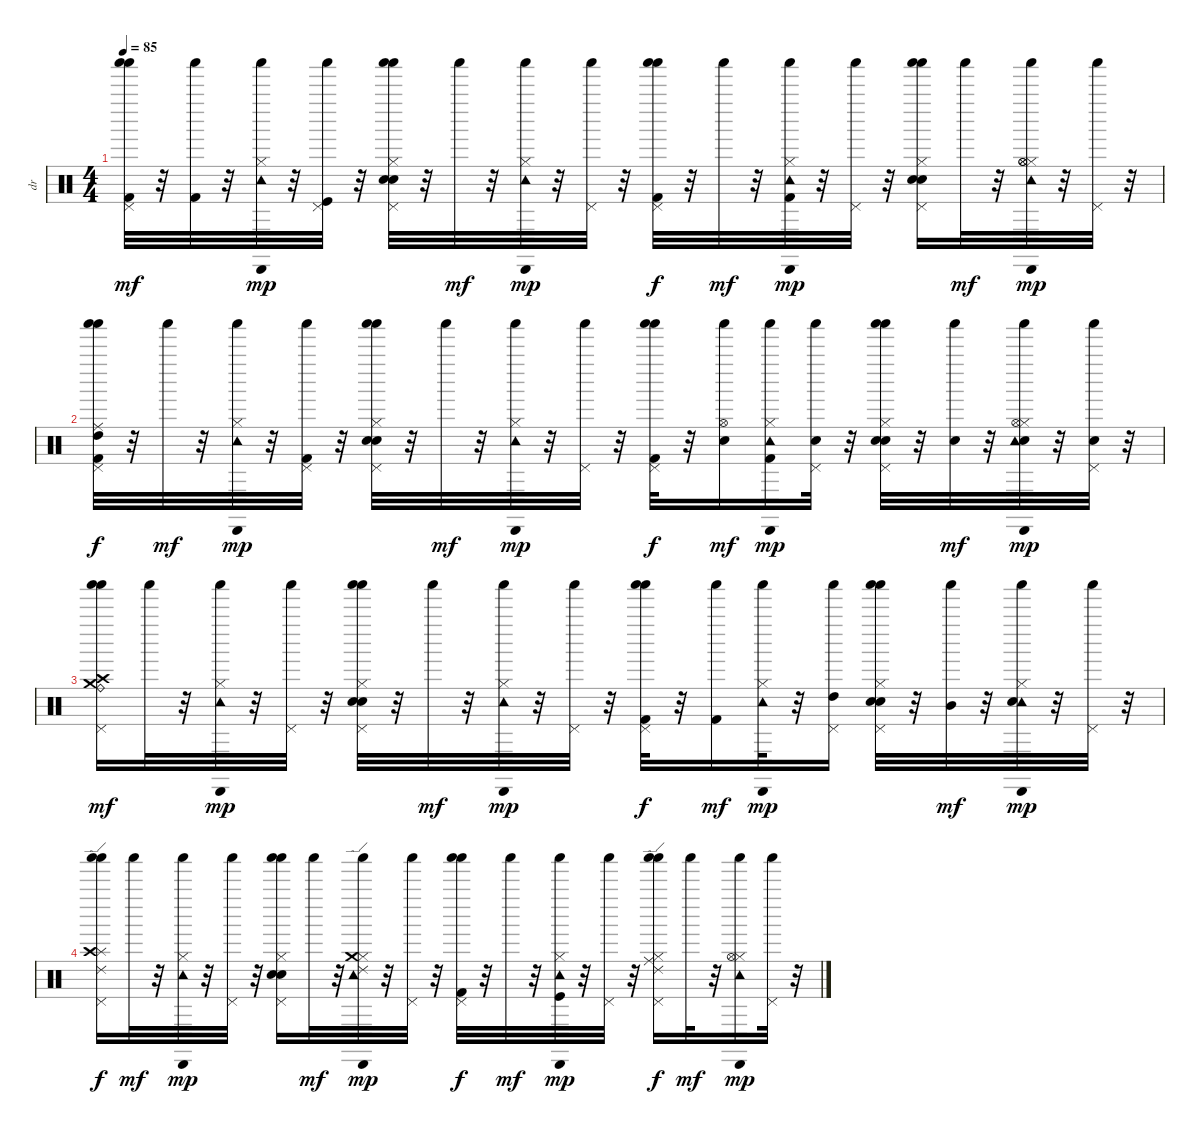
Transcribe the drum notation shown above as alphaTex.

\track ("dr" "dr") {instrument percussion}
\staff {score}
\articulation defaults
\ts (4 4)
\tempo 85
\clef neutral
\ks c
("Pedal Hi-Hat (hit)" "Shaker (hit)" "Shaker (hit)" "Kick (hit) 2").32{dy mf} r.32 ("Shaker (hit)" "Kick (hit) 2").32 r.32 ("Cabasa (hit)" "Tambourine (hit)" "Shaker (hit)" "Hi-Hat (closed)").32{dy mp} r.32 ("Pedal Hi-Hat (hit)" "Shaker (hit)" "Kick (hit)").32 r.32 ("Pedal Hi-Hat (hit)" "Shaker (hit)" "Shaker (hit)" "Hi-Hat (closed)" "Electric Snare (hit)" "Snare (hit) 2").32 r.32 "Shaker (hit)".32{dy mf} r.32 ("Hi-Hat (closed)" "Cabasa (hit)" "Tambourine (hit)" "Shaker (hit)").32{dy mp} r.32 ("Pedal Hi-Hat (hit)" "Shaker (hit)").32 r.32 ("Pedal Hi-Hat (hit)" "Shaker (hit)" "Shaker (hit)" "Kick (hit) 2").32{dy f} r.32 "Shaker (hit)".32{dy mf} r.32 ("Hi-Hat (closed)" "Cabasa (hit)" "Tambourine (hit)" "Shaker (hit)" "Kick (hit) 2").32{dy mp} r.32 ("Pedal Hi-Hat (hit)" "Shaker (hit)").32 r.32 ("Electric Snare (hit)" "Pedal Hi-Hat (hit)" "Shaker (hit)" "Shaker (hit)" "Hi-Hat (closed)" "Snare (hit) 2").16 "Shaker (hit)".32{dy mf} r.32 ("Hi-Hat (closed)" "Cabasa (hit)" "Tambourine (hit)" "Shaker (hit)" "Hi-Hat (open)" "Hi-Hat (open)").32{dy mp} r.32 ("Pedal Hi-Hat (hit)" "Shaker (hit)").32 r.32 |
("Pedal Hi-Hat (hit)" "Shaker (hit)" "Shaker (hit)" "Kick (hit) 2" "Ride (middle)" "High Tom (hit)").32{dy f} r.32 "Shaker (hit)".32{dy mf} r.32 ("Hi-Hat (closed)" "Cabasa (hit)" "Tambourine (hit)" "Shaker (hit)").32{dy mp} r.32 ("Pedal Hi-Hat (hit)" "Shaker (hit)" "Kick (hit) 2").32 r.32 ("Electric Snare (hit)" "Pedal Hi-Hat (hit)" "Shaker (hit)" "Shaker (hit)" "Hi-Hat (closed)" "Snare (hit) 2").32 r.32 "Shaker (hit)".32{dy mf} r.32 ("Hi-Hat (closed)" "Cabasa (hit)" "Tambourine (hit)" "Shaker (hit)").32{dy mp} r.32 ("Pedal Hi-Hat (hit)" "Shaker (hit)").32 r.32 ("Pedal Hi-Hat (hit)" "Shaker (hit)" "Shaker (hit)" "Kick (hit) 2").32{dy f} r.32 ("Shaker (hit)" "Snare (hit) 2" "Hi-Hat (open)").16{dy mf} ("Hi-Hat (closed)" "Cabasa (hit)" "Tambourine (hit)" "Shaker (hit)" "Kick (hit) 2").16{dy mp} ("Pedal Hi-Hat (hit)" "Shaker (hit)" "Electric Snare (hit)").32 r.32 ("Electric Snare (hit)" "Pedal Hi-Hat (hit)" "Shaker (hit)" "Shaker (hit)" "Hi-Hat (closed)" "Snare (hit) 2").32 r.32 ("Snare (hit) 2" "Shaker (hit)").32{dy mf} r.32 ("Snare (hit) 2" "Hi-Hat (closed)" "Cabasa (hit)" "Tambourine (hit)" "Shaker (hit)" "Hi-Hat (open)").32{dy mp} r.32 ("Pedal Hi-Hat (hit)" "Shaker (hit)" "Snare (hit) 2").32 r.32 |
("Shaker (hit)" "Shaker (hit)" "Pedal Hi-Hat (hit)" "Crash medium (hit)" "Ride (bell)" "Crash high (hit)").16{dy mf} "Shaker (hit)".32 r.32 ("Hi-Hat (closed)" "Cabasa (hit)" "Tambourine (hit)" "Shaker (hit)").32{dy mp} r.32 ("Pedal Hi-Hat (hit)" "Shaker (hit)").32 r.32 ("Electric Snare (hit)" "Pedal Hi-Hat (hit)" "Shaker (hit)" "Shaker (hit)" "Hi-Hat (closed)" "Snare (hit) 2").32 r.32 "Shaker (hit)".32{dy mf} r.32 ("Hi-Hat (closed)" "Cabasa (hit)" "Tambourine (hit)" "Shaker (hit)").32{dy mp} r.32 ("Pedal Hi-Hat (hit)" "Shaker (hit)").32 r.32 ("Pedal Hi-Hat (hit)" "Shaker (hit)" "Shaker (hit)" "Kick (hit) 2").32{dy f} r.32 ("Shaker (hit)" "Kick (hit) 2").16{dy mf} ("Cabasa (hit)" "Tambourine (hit)" "Shaker (hit)" "Hi-Hat (closed)").32{dy mp} r.32 ("Pedal Hi-Hat (hit)" "Shaker (hit)" "High Tom (hit)").16 ("Shaker (hit)" "Shaker (hit)" "Pedal Hi-Hat (hit)" "Hi-Hat (closed)" "Electric Snare (hit)" "Snare (hit) 2").32 r.32 ("Shaker (hit)" "Mid Tom (hit)").32{dy mf} r.32 ("Hi-Hat (closed)" "Cabasa (hit)" "Tambourine (hit)" "Shaker (hit)" "Snare (hit) 2").32{dy mp} r.32 ("Pedal Hi-Hat (hit)" "Shaker (hit)").32 r.32 |
("Pedal Hi-Hat (hit)" "Shaker (hit)" "Shaker (hit)" "Ride (edge) 2" "Splash (hit)" "Crash high (hit)").16{dy f} "Shaker (hit)".32{dy mf} r.32 ("Hi-Hat (closed)" "Cabasa (hit)" "Tambourine (hit)" "Shaker (hit)").32{dy mp} r.32 ("Pedal Hi-Hat (hit)" "Shaker (hit)").32 r.32 ("Electric Snare (hit)" "Pedal Hi-Hat (hit)" "Shaker (hit)" "Shaker (hit)" "Hi-Hat (closed)" "Snare (hit) 2").16 "Shaker (hit)".32{dy mf} r.32 ("Hi-Hat (closed)" "Cabasa (hit)" "Tambourine (hit)" "Shaker (hit)" "Crash medium (hit)" "Ride (edge) 2").32{dy mp} r.32 ("Pedal Hi-Hat (hit)" "Shaker (hit)").32 r.32 ("Pedal Hi-Hat (hit)" "Shaker (hit)" "Shaker (hit)" "Kick (hit) 2").32{dy f} r.32 "Shaker (hit)".32{dy mf} r.32 ("Hi-Hat (closed)" "Cabasa (hit)" "Tambourine (hit)" "Shaker (hit)" "Kick (hit)").32{dy mp} r.32 ("Pedal Hi-Hat (hit)" "Shaker (hit)").32 r.32 ("Pedal Hi-Hat (hit)" "Shaker (hit)" "Shaker (hit)" "Hi-Hat (closed)" "Ride (middle)" "Ride (edge) 2").16{dy f} "Shaker (hit)".32{dy mf} r.32 ("Hi-Hat (closed)" "Cabasa (hit)" "Tambourine (hit)" "Shaker (hit)" "Hi-Hat (open)").16{dy mp} ("Pedal Hi-Hat (hit)" "Shaker (hit)").32 r.32
